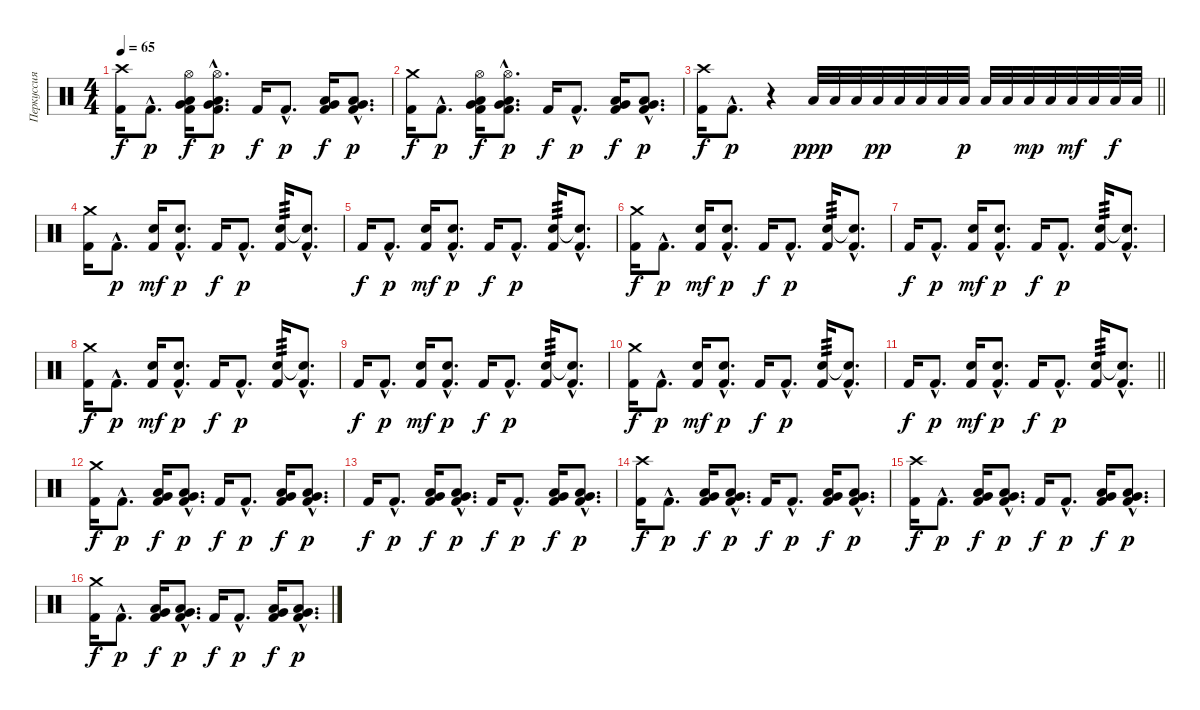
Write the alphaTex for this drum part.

\track ("Перкуссия" "Перкуссия") {instrument percussion}
\staff {score}
\articulation defaults
\ts (4 4)
\tempo 65
\clef neutral
\ks c
("Kick (hit) 2" "Crash high (hit)").16{dy f} "Kick (hit) 2"{hac}.8{d dy p} ("Kick (hit) 2" "Low Tom (hit)" "Very Low Tom (hit)" "Hi-Hat (open)").16{dy f} ("Kick (hit) 2"{hac} "Low Tom (hit)"{hac} "Very Low Tom (hit)"{hac} "Hi-Hat (open)"{hac}).8{d dy p} "Kick (hit) 2".16{dy f} "Kick (hit) 2"{hac}.8{d dy p} ("Kick (hit) 2" "Low Tom (hit)" "Very Low Tom (hit)").16{dy f} ("Kick (hit) 2"{hac} "Low Tom (hit)"{hac} "Very Low Tom (hit)"{hac}).8{d dy p} |
("Kick (hit) 2" "Crash medium (hit)").16{dy f} "Kick (hit) 2"{hac}.8{d dy p} ("Kick (hit) 2" "Low Tom (hit)" "Very Low Tom (hit)" "Hi-Hat (open)").16{dy f} ("Kick (hit) 2"{hac} "Low Tom (hit)"{hac} "Very Low Tom (hit)"{hac} "Hi-Hat (open)"{hac}).8{d dy p} "Kick (hit) 2".16{dy f} "Kick (hit) 2"{hac}.8{d dy p} ("Kick (hit) 2" "Low Tom (hit)" "Very Low Tom (hit)").16{dy f} ("Kick (hit) 2"{hac} "Low Tom (hit)"{hac} "Very Low Tom (hit)"{hac}).8{d dy p} |
\barLineRight lightlight
("Kick (hit) 2" "Crash high (hit)").16{dy f} "Kick (hit) 2"{hac}.8{d dy p} r.4 "Low Tom (hit)".32{dy ppp} "Low Tom (hit)".32 "Low Tom (hit)".32 "Low Tom (hit)".32{dy pp} "Low Tom (hit)".32 "Low Tom (hit)".32 "Low Tom (hit)".32 "Low Tom (hit)".32{dy p} "Low Tom (hit)".32 "Low Tom (hit)".32 "Low Tom (hit)".32{dy mp} "Low Tom (hit)".32 "Low Tom (hit)".32{dy mf} "Low Tom (hit)".32 "Low Tom (hit)".32{dy f} "Low Tom (hit)".32 |
("Kick (hit) 2" "Crash medium (hit)").16 "Kick (hit) 2"{hac}.8{d dy p} ("Kick (hit) 2" "Electric Snare (hit)").16{dy mf} ("Kick (hit) 2"{hac} "Electric Snare (hit)"{hac}).8{d dy p} "Kick (hit) 2".16{dy f} "Kick (hit) 2"{hac}.8{d dy p} ("Kick (hit) 2" "Electric Snare (hit)").16{tp 3} ("Kick (hit) 2"{hac} "Snare (hit)"{hac t}).8{d} |
"Kick (hit) 2".16{dy f} "Kick (hit) 2"{hac}.8{d dy p} ("Kick (hit) 2" "Electric Snare (hit)").16{dy mf} ("Kick (hit) 2"{hac} "Electric Snare (hit)"{hac}).8{d dy p} "Kick (hit) 2".16{dy f} "Kick (hit) 2"{hac}.8{d dy p} ("Kick (hit) 2" "Electric Snare (hit)").16{tp 3} ("Kick (hit) 2"{hac} "Snare (hit)"{hac t}).8{d} |
("Kick (hit) 2" "Crash medium (hit)").16{dy f} "Kick (hit) 2"{hac}.8{d dy p} ("Kick (hit) 2" "Electric Snare (hit)").16{dy mf} ("Kick (hit) 2"{hac} "Electric Snare (hit)"{hac}).8{d dy p} "Kick (hit) 2".16{dy f} "Kick (hit) 2"{hac}.8{d dy p} ("Kick (hit) 2" "Electric Snare (hit)").16{tp 3} ("Kick (hit) 2"{hac} "Snare (hit)"{hac t}).8{d} |
"Kick (hit) 2".16{dy f} "Kick (hit) 2"{hac}.8{d dy p} ("Kick (hit) 2" "Electric Snare (hit)").16{dy mf} ("Kick (hit) 2"{hac} "Electric Snare (hit)"{hac}).8{d dy p} "Kick (hit) 2".16{dy f} "Kick (hit) 2"{hac}.8{d dy p} ("Kick (hit) 2" "Electric Snare (hit)").16{tp 3} ("Kick (hit) 2"{hac} "Snare (hit)"{hac t}).8{d} |
("Kick (hit) 2" "Crash medium (hit)").16{dy f} "Kick (hit) 2"{hac}.8{d dy p} ("Kick (hit) 2" "Electric Snare (hit)").16{dy mf} ("Kick (hit) 2"{hac} "Electric Snare (hit)"{hac}).8{d dy p} "Kick (hit) 2".16{dy f} "Kick (hit) 2"{hac}.8{d dy p} ("Kick (hit) 2" "Electric Snare (hit)").16{tp 3} ("Kick (hit) 2"{hac} "Snare (hit)"{hac t}).8{d} |
"Kick (hit) 2".16{dy f} "Kick (hit) 2"{hac}.8{d dy p} ("Kick (hit) 2" "Electric Snare (hit)").16{dy mf} ("Kick (hit) 2"{hac} "Electric Snare (hit)"{hac}).8{d dy p} "Kick (hit) 2".16{dy f} "Kick (hit) 2"{hac}.8{d dy p} ("Kick (hit) 2" "Electric Snare (hit)").16{tp 3} ("Kick (hit) 2"{hac} "Snare (hit)"{hac t}).8{d} |
("Kick (hit) 2" "Crash medium (hit)").16{dy f} "Kick (hit) 2"{hac}.8{d dy p} ("Kick (hit) 2" "Electric Snare (hit)").16{dy mf} ("Kick (hit) 2"{hac} "Electric Snare (hit)"{hac}).8{d dy p} "Kick (hit) 2".16{dy f} "Kick (hit) 2"{hac}.8{d dy p} ("Kick (hit) 2" "Electric Snare (hit)").16{tp 3} ("Kick (hit) 2"{hac} "Snare (hit)"{hac t}).8{d} |
\barLineRight lightlight "Kick (hit) 2".16{dy f} "Kick (hit) 2"{hac}.8{d dy p}
("Kick (hit) 2" "Electric Snare (hit)").16{dy mf} ("Kick (hit) 2"{hac} "Electric Snare (hit)"{hac}).8{d dy p} "Kick (hit) 2".16{dy f} "Kick (hit) 2"{hac}.8{d dy p} ("Kick (hit) 2" "Electric Snare (hit)").16{tp 3} ("Kick (hit) 2"{hac} "Snare (hit)"{hac t}).8{d} |
("Kick (hit) 2" "Crash medium (hit)").16{dy f} "Kick (hit) 2"{hac}.8{d dy p} ("Kick (hit) 2" "Low Tom (hit)" "Very Low Tom (hit)").16{dy f} ("Kick (hit) 2"{hac} "Low Tom (hit)"{hac} "Very Low Tom (hit)"{hac}).8{d dy p} "Kick (hit) 2".16{dy f} "Kick (hit) 2"{hac}.8{d dy p} ("Kick (hit) 2" "Low Tom (hit)" "Very Low Tom (hit)").16{dy f} ("Kick (hit) 2"{hac} "Low Tom (hit)"{hac} "Very Low Tom (hit)"{hac}).8{d dy p} |
"Kick (hit) 2".16{dy f} "Kick (hit) 2"{hac}.8{d dy p} ("Kick (hit) 2" "Low Tom (hit)" "Very Low Tom (hit)").16{dy f} ("Kick (hit) 2"{hac} "Low Tom (hit)"{hac} "Very Low Tom (hit)"{hac}).8{d dy p} "Kick (hit) 2".16{dy f} "Kick (hit) 2"{hac}.8{d dy p} ("Kick (hit) 2" "Low Tom (hit)" "Very Low Tom (hit)").16{dy f} ("Kick (hit) 2"{hac} "Low Tom (hit)"{hac} "Very Low Tom (hit)"{hac}).8{d dy p} |
("Kick (hit) 2" "Crash high (hit)").16{dy f} "Kick (hit) 2"{hac}.8{d dy p} ("Kick (hit) 2" "Low Tom (hit)" "Very Low Tom (hit)").16{dy f} ("Kick (hit) 2"{hac} "Low Tom (hit)"{hac} "Very Low Tom (hit)"{hac}).8{d dy p} "Kick (hit) 2".16{dy f} "Kick (hit) 2"{hac}.8{d dy p} ("Kick (hit) 2" "Low Tom (hit)" "Very Low Tom (hit)").16{dy f} ("Kick (hit) 2"{hac} "Low Tom (hit)"{hac} "Very Low Tom (hit)"{hac}).8{d dy p} |
("Kick (hit) 2" "Crash high (hit)").16{dy f} "Kick (hit) 2"{hac}.8{d dy p} ("Kick (hit) 2" "Low Tom (hit)" "Very Low Tom (hit)").16{dy f} ("Kick (hit) 2"{hac} "Low Tom (hit)"{hac} "Very Low Tom (hit)"{hac}).8{d dy p} "Kick (hit) 2".16{dy f} "Kick (hit) 2"{hac}.8{d dy p} ("Kick (hit) 2" "Low Tom (hit)" "Very Low Tom (hit)").16{dy f} ("Kick (hit) 2"{hac} "Low Tom (hit)"{hac} "Very Low Tom (hit)"{hac}).8{d dy p} |
("Kick (hit) 2" "Crash medium (hit)").16{dy f} "Kick (hit) 2"{hac}.8{d dy p} ("Kick (hit) 2" "Low Tom (hit)" "Very Low Tom (hit)").16{dy f} ("Kick (hit) 2"{hac} "Low Tom (hit)"{hac} "Very Low Tom (hit)"{hac}).8{d dy p} "Kick (hit) 2".16{dy f} "Kick (hit) 2"{hac}.8{d dy p} ("Kick (hit) 2" "Low Tom (hit)" "Very Low Tom (hit)").16{dy f} ("Kick (hit) 2"{hac} "Low Tom (hit)"{hac} "Very Low Tom (hit)"{hac}).8{d dy p}
